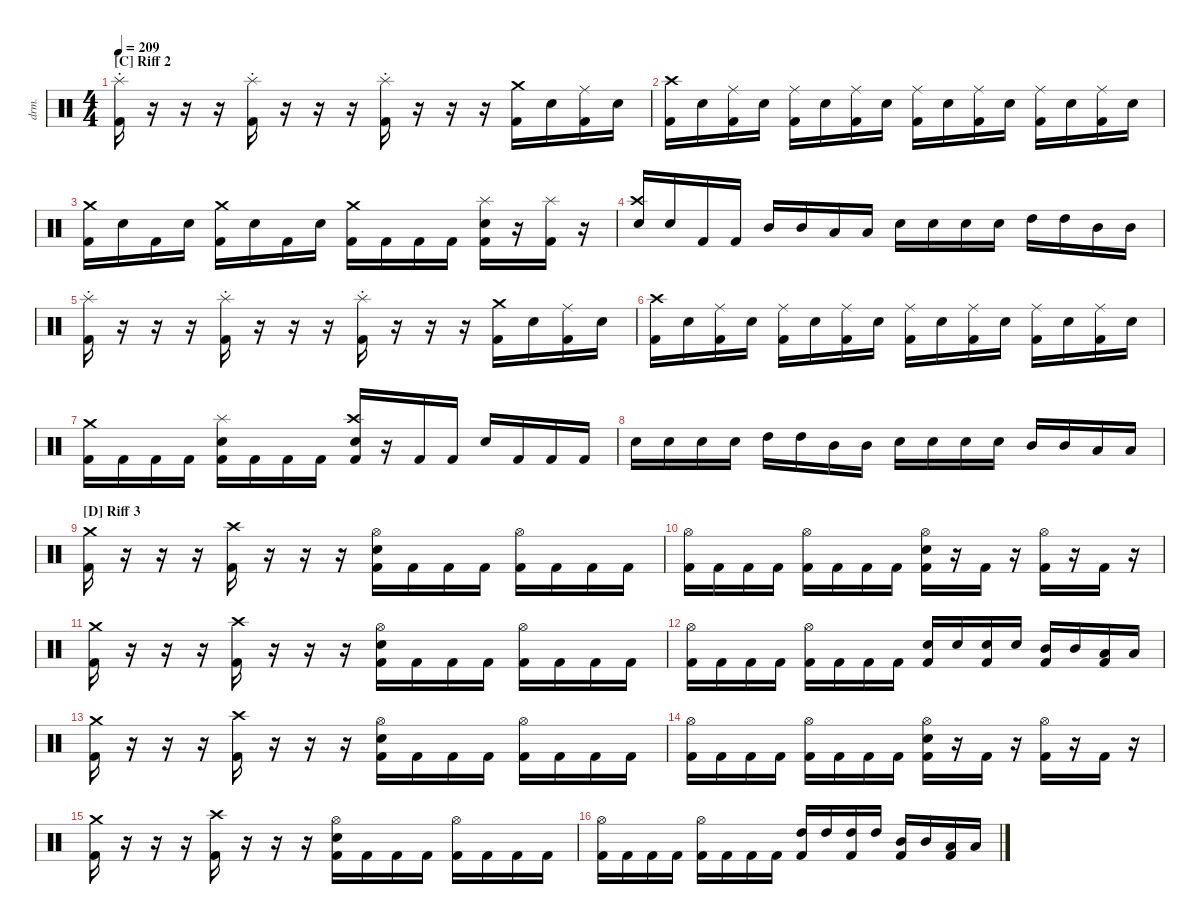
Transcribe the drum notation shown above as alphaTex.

\hideDynamics
\bracketExtendMode nobrackets
\track ("Drums" "drm.") {instrument percussion}
\staff {score}
\articulation defaults
\ts (4 4)
\section ("C" "Riff 2")
\tempo 209
\clef neutral
\ks c
("Splash (choke)" "Kick (hit) 2").16{dy mf beam Down} r.16{beam Down} r.16{beam Down} r.16{beam Down} ("Splash (choke)" "Kick (hit) 2").16{beam Down} r.16{beam Down} r.16{beam Down} r.16{beam Down} ("Splash (choke)" "Kick (hit) 2").16{beam Down} r.16{beam Down} r.16{beam Down} r.16{beam Down} ("Kick (hit) 2" "Crash medium (hit)").16{beam Down} "Snare (hit) 2".16{beam Down} ("Kick (hit) 2" "Ride (middle)").16{beam Down} "Snare (hit) 2".16{beam Down} |
("Kick (hit) 2" "Crash high (hit)").16{beam Down} "Snare (hit) 2".16{beam Down} ("Kick (hit) 2" "Ride (middle)").16{beam Down} "Snare (hit) 2".16{beam Down} ("Kick (hit) 2" "Ride (middle)").16{beam Down} "Snare (hit) 2".16{beam Down} ("Kick (hit) 2" "Ride (middle)").16{beam Down} "Snare (hit) 2".16{beam Down} ("Kick (hit) 2" "Ride (middle)").16{beam Down} "Snare (hit) 2".16{beam Down} ("Kick (hit) 2" "Ride (middle)").16{beam Down} "Snare (hit) 2".16{beam Down} ("Kick (hit) 2" "Ride (middle)").16{beam Down} "Snare (hit) 2".16{beam Down} ("Kick (hit) 2" "Ride (middle)").16{beam Down} "Snare (hit) 2".16{beam Down} |
("Kick (hit) 2" "Crash medium (hit)").16{beam Down} "Snare (hit) 2".16{beam Down} "Kick (hit) 2".16{beam Down} "Snare (hit) 2".16{beam Down} ("Kick (hit) 2" "Crash medium (hit)").16{beam Down} "Snare (hit) 2".16{beam Down} "Kick (hit) 2".16{beam Down} "Snare (hit) 2".16{beam Down} ("Kick (hit) 2" "Crash medium (hit)").16{beam Down} "Kick (hit) 2".16{beam Down} "Kick (hit) 2".16{beam Down} "Kick (hit) 2".16{beam Down} ("Kick (hit) 2" "Splash (hit)" "Snare (hit) 2").16{beam Down} r.16{beam Down} ("Kick (hit) 2" "Splash (hit)").16{beam Down} r.16{beam Down} |
("Snare (hit) 2" "Crash high (hit)").16{beam Up} "Snare (hit) 2".16{beam Up} "Kick (hit) 2".16{beam Up} "Kick (hit) 2".16{beam Up} "Mid Tom (hit)".16{beam Up} "Mid Tom (hit)".16{beam Up} "Low Tom (hit)".16{beam Up} "Low Tom (hit)".16{beam Up} "Snare (hit) 2".16{beam Down} "Snare (hit) 2".16{beam Down} "Snare (hit) 2".16{beam Down} "Snare (hit) 2".16{beam Down} "High Tom (hit)".16{beam Down} "High Tom (hit)".16{beam Down} "Mid Tom (hit)".16{beam Down} "Mid Tom (hit)".16{beam Down} |
("Splash (choke)" "Kick (hit) 2").16{beam Down} r.16{beam Down} r.16{beam Down} r.16{beam Down} ("Splash (choke)" "Kick (hit) 2").16{beam Down} r.16{beam Down} r.16{beam Down} r.16{beam Down} ("Splash (choke)" "Kick (hit) 2").16{beam Down} r.16{beam Down} r.16{beam Down} r.16{beam Down} ("Kick (hit) 2" "Crash medium (hit)").16{beam Down} "Snare (hit) 2".16{beam Down} ("Kick (hit) 2" "Ride (middle)").16{beam Down} "Snare (hit) 2".16{beam Down} |
("Kick (hit) 2" "Crash high (hit)").16{beam Down} "Snare (hit) 2".16{beam Down} ("Kick (hit) 2" "Ride (middle)").16{beam Down} "Snare (hit) 2".16{beam Down} ("Kick (hit) 2" "Ride (middle)").16{beam Down} "Snare (hit) 2".16{beam Down} ("Kick (hit) 2" "Ride (middle)").16{beam Down} "Snare (hit) 2".16{beam Down} ("Kick (hit) 2" "Ride (middle)").16{beam Down} "Snare (hit) 2".16{beam Down} ("Kick (hit) 2" "Ride (middle)").16{beam Down} "Snare (hit) 2".16{beam Down} ("Kick (hit) 2" "Ride (middle)").16{beam Down} "Snare (hit) 2".16{beam Down} ("Kick (hit) 2" "Ride (middle)").16{beam Down} "Snare (hit) 2".16{beam Down} |
("Kick (hit) 2" "Crash medium (hit)").16{beam Down} "Kick (hit) 2".16{beam Down} "Kick (hit) 2".16{beam Down} "Kick (hit) 2".16{beam Down} ("Kick (hit) 2" "Splash (hit)" "Snare (hit) 2").16{beam Down} "Kick (hit) 2".16{beam Down} "Kick (hit) 2".16{beam Down} "Kick (hit) 2".16{beam Down} ("Kick (hit) 2" "Crash high (hit)" "Snare (hit) 2").16{beam Up} r.16{beam Up} "Kick (hit) 2".16{beam Up} "Kick (hit) 2".16{beam Up} "Snare (hit) 2".16{beam Up} "Kick (hit) 2".16{beam Up} "Kick (hit) 2".16{beam Up} "Kick (hit) 2".16{beam Up} |
"Snare (hit) 2".16{beam Down} "Snare (hit) 2".16{beam Down} "Snare (hit) 2".16{beam Down} "Snare (hit) 2".16{beam Down} "High Tom (hit)".16{beam Down} "High Tom (hit)".16{beam Down} "Mid Tom (hit)".16{beam Down} "Mid Tom (hit)".16{beam Down} "Snare (hit) 2".16{beam Down} "Snare (hit) 2".16{beam Down} "Snare (hit) 2".16{beam Down} "Snare (hit) 2".16{beam Down} "Mid Tom (hit)".16{beam Up} "Mid Tom (hit)".16{beam Up} "Low Tom (hit)".16{beam Up} "Low Tom (hit)".16{beam Up} |
\section ("D" "Riff 3")
("Kick (hit) 2" "Crash medium (hit)").16{beam Down} r.16{beam Down} r.16{beam Down} r.16{beam Down} ("Kick (hit) 2" "Crash high (hit)").16{beam Down} r.16{beam Down} r.16{beam Down} r.16{beam Down} ("Kick (hit) 2" "Snare (hit) 2" "Hi-Hat (open)").16{beam Down} "Kick (hit) 2".16{beam Down} "Kick (hit) 2".16{beam Down} "Kick (hit) 2".16{beam Down} ("Kick (hit) 2" "Hi-Hat (open)").16{beam Down} "Kick (hit) 2".16{beam Down} "Kick (hit) 2".16{beam Down} "Kick (hit) 2".16{beam Down} |
("Kick (hit) 2" "Hi-Hat (open)").16{beam Down} "Kick (hit) 2".16{beam Down} "Kick (hit) 2".16{beam Down} "Kick (hit) 2".16{beam Down} ("Kick (hit) 2" "Hi-Hat (open)").16{beam Down} "Kick (hit) 2".16{beam Down} "Kick (hit) 2".16{beam Down} "Kick (hit) 2".16{beam Down} ("Kick (hit) 2" "Hi-Hat (open)" "Snare (hit) 2").16{beam Down} r.16{beam Down} "Kick (hit) 2".16{beam Down} r.16{beam Down} ("Kick (hit) 2" "Hi-Hat (open)").16{beam Down} r.16{beam Down} "Kick (hit) 2".16{beam Down} r.16{beam Down} |
("Kick (hit) 2" "Crash medium (hit)").16{beam Down} r.16{beam Down} r.16{beam Down} r.16{beam Down} ("Kick (hit) 2" "Crash high (hit)").16{beam Down} r.16{beam Down} r.16{beam Down} r.16{beam Down} ("Kick (hit) 2" "Snare (hit) 2" "Hi-Hat (open)").16{beam Down} "Kick (hit) 2".16{beam Down} "Kick (hit) 2".16{beam Down} "Kick (hit) 2".16{beam Down} ("Kick (hit) 2" "Hi-Hat (open)").16{beam Down} "Kick (hit) 2".16{beam Down} "Kick (hit) 2".16{beam Down} "Kick (hit) 2".16{beam Down} |
("Kick (hit) 2" "Hi-Hat (open)").16{beam Down} "Kick (hit) 2".16{beam Down} "Kick (hit) 2".16{beam Down} "Kick (hit) 2".16{beam Down} ("Kick (hit) 2" "Hi-Hat (open)").16{beam Down} "Kick (hit) 2".16{beam Down} "Kick (hit) 2".16{beam Down} "Kick (hit) 2".16{beam Down} ("Kick (hit) 2" "Snare (hit) 2").16{beam Up} "Snare (hit) 2".16{beam Up} ("Kick (hit) 2" "Snare (hit) 2").16{beam Up} "Snare (hit) 2".16{beam Up} ("Kick (hit) 2" "Mid Tom (hit)").16{beam Up} "Mid Tom (hit)".16{beam Up} ("Kick (hit) 2" "Low Tom (hit)").16{beam Up} "Low Tom (hit)".16{beam Up} |
("Kick (hit) 2" "Crash medium (hit)").16{beam Down} r.16{beam Down} r.16{beam Down} r.16{beam Down} ("Kick (hit) 2" "Crash high (hit)").16{beam Down} r.16{beam Down} r.16{beam Down} r.16{beam Down} ("Kick (hit) 2" "Snare (hit) 2" "Hi-Hat (open)").16{beam Down} "Kick (hit) 2".16{beam Down} "Kick (hit) 2".16{beam Down} "Kick (hit) 2".16{beam Down} ("Kick (hit) 2" "Hi-Hat (open)").16{beam Down} "Kick (hit) 2".16{beam Down} "Kick (hit) 2".16{beam Down} "Kick (hit) 2".16{beam Down} |
("Kick (hit) 2" "Hi-Hat (open)").16{beam Down} "Kick (hit) 2".16{beam Down} "Kick (hit) 2".16{beam Down} "Kick (hit) 2".16{beam Down} ("Kick (hit) 2" "Hi-Hat (open)").16{beam Down} "Kick (hit) 2".16{beam Down} "Kick (hit) 2".16{beam Down} "Kick (hit) 2".16{beam Down} ("Kick (hit) 2" "Snare (hit) 2" "Hi-Hat (open)").16{beam Down} r.16{beam Down} "Kick (hit) 2".16{beam Down} r.16{beam Down} ("Kick (hit) 2" "Hi-Hat (open)").16{beam Down} r.16{beam Down} "Kick (hit) 2".16{beam Down} r.16{beam Down} |
("Kick (hit) 2" "Crash medium (hit)").16{beam Down} r.16{beam Down} r.16{beam Down} r.16{beam Down} ("Kick (hit) 2" "Crash high (hit)").16{beam Down} r.16{beam Down} r.16{beam Down} r.16{beam Down} ("Kick (hit) 2" "Snare (hit) 2" "Hi-Hat (open)").16{beam Down} "Kick (hit) 2".16{beam Down} "Kick (hit) 2".16{beam Down} "Kick (hit) 2".16{beam Down} ("Kick (hit) 2" "Hi-Hat (open)").16{beam Down} "Kick (hit) 2".16{beam Down} "Kick (hit) 2".16{beam Down} "Kick (hit) 2".16{beam Down} |
("Kick (hit) 2" "Hi-Hat (open)").16{beam Down} "Kick (hit) 2".16{beam Down} "Kick (hit) 2".16{beam Down} "Kick (hit) 2".16{beam Down} ("Kick (hit) 2" "Hi-Hat (open)").16{beam Down} "Kick (hit) 2".16{beam Down} "Kick (hit) 2".16{beam Down} "Kick (hit) 2".16{beam Down} ("Kick (hit) 2" "High Tom (hit)").16{beam Up} "High Tom (hit)".16{beam Up} ("Kick (hit) 2" "High Tom (hit)").16{beam Up} "High Tom (hit)".16{beam Up} ("Kick (hit) 2" "Mid Tom (hit)").16{beam Up} "Mid Tom (hit)".16{beam Up} ("Kick (hit) 2" "Low Tom (hit)").16{beam Up} "Low Tom (hit)".16{beam Up}
